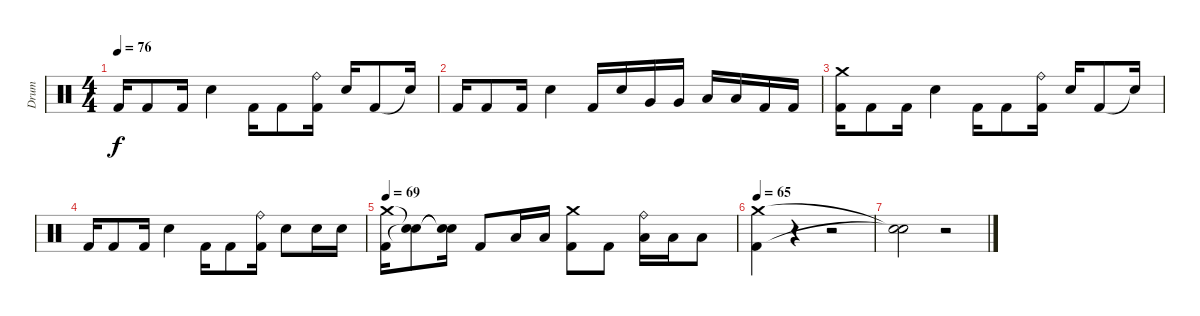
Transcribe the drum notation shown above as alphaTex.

\track ("Drum" "Drum") {instrument percussion}
\staff {score}
\articulation defaults
\ts (4 4)
\tempo 76
\clef neutral
\ks c "Kick (hit) 2".16{dy f} "Kick (hit) 2".8 "Kick (hit) 2".16 "Electric Snare (hit)".4 "Kick (hit) 2".16 "Kick (hit) 2".8
("Ride (bell)" "Kick (hit) 2").16 "Electric Snare (hit)".16 "Kick (hit) 2".8 "Snare (hit)"{t}.16 |
"Kick (hit) 2".16 "Kick (hit) 2".8 "Kick (hit) 2".16 "Electric Snare (hit)".4 "Kick (hit) 2".16 "Electric Snare (hit)".16 "Very Low Tom (hit)".16 "Very Low Tom (hit)".16 "Low Floor Tom (hit)".16 "Low Floor Tom (hit)".16 "Kick (hit) 2".16 "Kick (hit) 2".16 |
("Crash medium (hit)" "Kick (hit) 2").16 "Kick (hit) 2".8 "Kick (hit) 2".16 "Electric Snare (hit)".4 "Kick (hit) 2".16 "Kick (hit) 2".8 ("Ride (bell)" "Kick (hit) 2").16 "Electric Snare (hit)".16 "Kick (hit) 2".8 "Snare (hit)"{t}.16 |
"Kick (hit) 2".16 "Kick (hit) 2".8 "Kick (hit) 2".16 "Electric Snare (hit)".4 "Kick (hit) 2".16 "Kick (hit) 2".8 ("Ride (bell)" "Kick (hit) 2").16 "Electric Snare (hit)".8 "Electric Snare (hit)".16 "Electric Snare (hit)".16 |
\tempo 69
("Crash medium (hit)" "Kick (hit) 2").16 ("Snare (hit)"{t} "Snare (hit)"{t}).8 ("Snare (hit)"{t} "Snare (hit)"{t}).16 "Kick (hit) 2".8 "Low Tom (hit)".16 "Low Tom (hit)".16 ("Crash medium (hit)" "Kick (hit) 2").8 "Kick (hit) 2".8 ("Ride (bell)" "Low Tom (hit)").16 "Low Tom (hit)".16 "Low Tom (hit)".8 |
\tempo 65
("Crash medium (hit)" "Kick (hit) 2").4 r.4 r.2 |
("Snare (hit)"{t} "Snare (hit)"{t}).2 r.2
